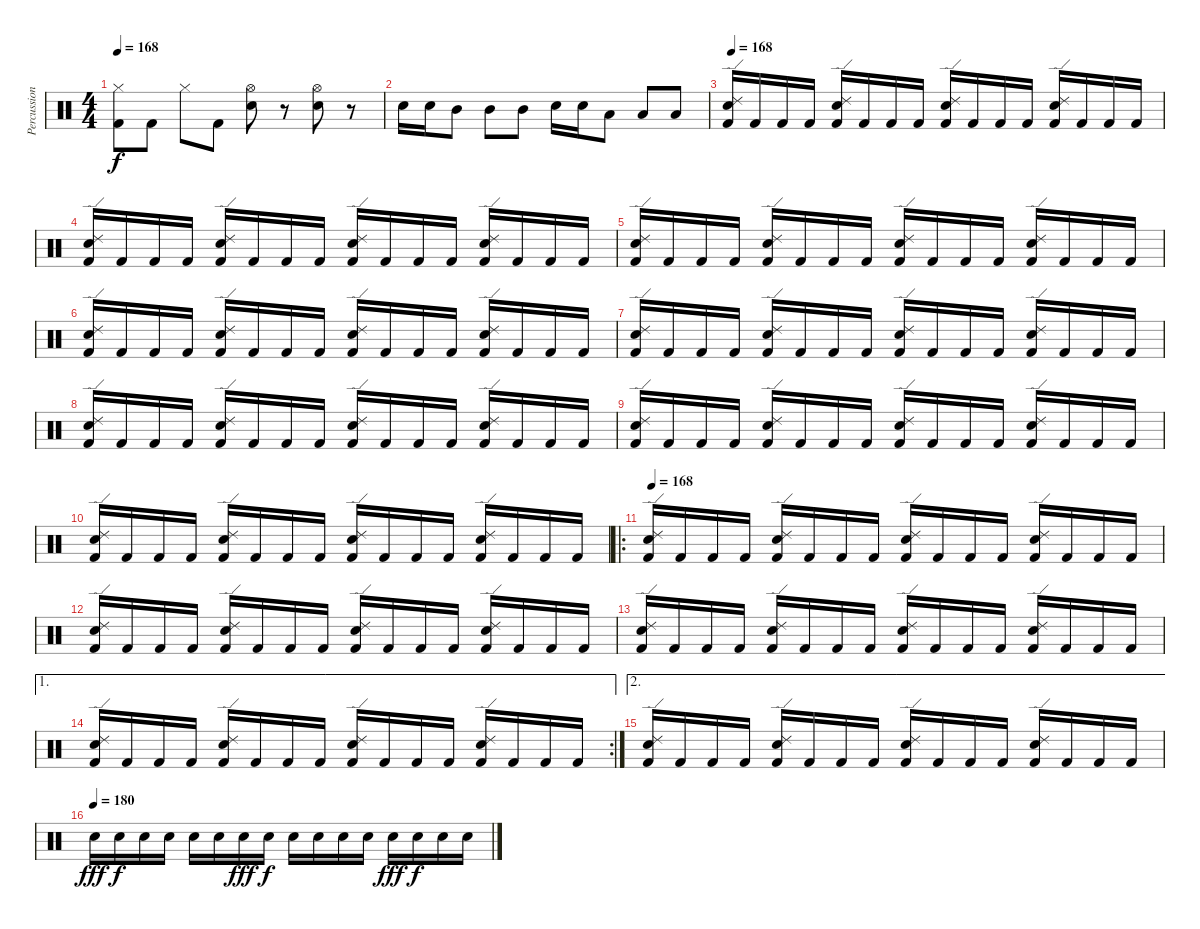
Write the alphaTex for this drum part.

\track ("Percussion" "Percussion") {instrument percussion}
\staff {score}
\articulation defaults
\ts (4 4)
\tempo 168
\clef neutral
\ks c
("Hi-Hat (closed)" "Kick (hit) 2").8{dy f} "Kick (hit) 2".8 "Hi-Hat (closed)".8 "Kick (hit) 2".8 ("Hi-Hat (open)" "Snare (hit) 2").8 r.8 ("Hi-Hat (open)" "Snare (hit) 2").8 r.8 |
"Snare (hit) 2".16 "Snare (hit) 2".16 "Mid Tom (hit)".8 "Mid Tom (hit)".8 "Mid Tom (hit)".8 "Snare (hit) 2".16 "Snare (hit) 2".16 "Low Tom (hit)".8 "Low Tom (hit)".8 "Low Tom (hit)".8 |
\tempo 168
("Ride (edge) 2" "Snare (hit) 2" "Kick (hit) 2").16 "Kick (hit) 2".16 "Kick (hit) 2".16 "Kick (hit) 2".16 ("Ride (edge) 2" "Snare (hit) 2" "Kick (hit) 2").16 "Kick (hit) 2".16 "Kick (hit) 2".16 "Kick (hit) 2".16 ("Ride (edge) 2" "Snare (hit) 2" "Kick (hit) 2").16 "Kick (hit) 2".16 "Kick (hit) 2".16 "Kick (hit) 2".16 ("Ride (edge) 2" "Snare (hit) 2" "Kick (hit) 2").16 "Kick (hit) 2".16 "Kick (hit) 2".16 "Kick (hit) 2".16 |
("Ride (edge) 2" "Snare (hit) 2" "Kick (hit) 2").16 "Kick (hit) 2".16 "Kick (hit) 2".16 "Kick (hit) 2".16 ("Ride (edge) 2" "Snare (hit) 2" "Kick (hit) 2").16 "Kick (hit) 2".16 "Kick (hit) 2".16 "Kick (hit) 2".16 ("Ride (edge) 2" "Snare (hit) 2" "Kick (hit) 2").16 "Kick (hit) 2".16 "Kick (hit) 2".16 "Kick (hit) 2".16 ("Ride (edge) 2" "Snare (hit) 2" "Kick (hit) 2").16 "Kick (hit) 2".16 "Kick (hit) 2".16 "Kick (hit) 2".16 |
("Ride (edge) 2" "Snare (hit) 2" "Kick (hit) 2").16 "Kick (hit) 2".16 "Kick (hit) 2".16 "Kick (hit) 2".16 ("Ride (edge) 2" "Snare (hit) 2" "Kick (hit) 2").16 "Kick (hit) 2".16 "Kick (hit) 2".16 "Kick (hit) 2".16 ("Ride (edge) 2" "Snare (hit) 2" "Kick (hit) 2").16 "Kick (hit) 2".16 "Kick (hit) 2".16 "Kick (hit) 2".16 ("Ride (edge) 2" "Snare (hit) 2" "Kick (hit) 2").16 "Kick (hit) 2".16 "Kick (hit) 2".16 "Kick (hit) 2".16 |
("Ride (edge) 2" "Snare (hit) 2" "Kick (hit) 2").16 "Kick (hit) 2".16 "Kick (hit) 2".16 "Kick (hit) 2".16 ("Ride (edge) 2" "Snare (hit) 2" "Kick (hit) 2").16 "Kick (hit) 2".16 "Kick (hit) 2".16 "Kick (hit) 2".16 ("Ride (edge) 2" "Snare (hit) 2" "Kick (hit) 2").16 "Kick (hit) 2".16 "Kick (hit) 2".16 "Kick (hit) 2".16 ("Ride (edge) 2" "Snare (hit) 2" "Kick (hit) 2").16 "Kick (hit) 2".16 "Kick (hit) 2".16 "Kick (hit) 2".16 |
("Ride (edge) 2" "Snare (hit) 2" "Kick (hit) 2").16 "Kick (hit) 2".16 "Kick (hit) 2".16 "Kick (hit) 2".16 ("Ride (edge) 2" "Snare (hit) 2" "Kick (hit) 2").16 "Kick (hit) 2".16 "Kick (hit) 2".16 "Kick (hit) 2".16 ("Ride (edge) 2" "Snare (hit) 2" "Kick (hit) 2").16 "Kick (hit) 2".16 "Kick (hit) 2".16 "Kick (hit) 2".16 ("Ride (edge) 2" "Snare (hit) 2" "Kick (hit) 2").16 "Kick (hit) 2".16 "Kick (hit) 2".16 "Kick (hit) 2".16 |
("Ride (edge) 2" "Snare (hit) 2" "Kick (hit) 2").16 "Kick (hit) 2".16 "Kick (hit) 2".16 "Kick (hit) 2".16 ("Ride (edge) 2" "Snare (hit) 2" "Kick (hit) 2").16 "Kick (hit) 2".16 "Kick (hit) 2".16 "Kick (hit) 2".16 ("Ride (edge) 2" "Snare (hit) 2" "Kick (hit) 2").16 "Kick (hit) 2".16 "Kick (hit) 2".16 "Kick (hit) 2".16 ("Ride (edge) 2" "Snare (hit) 2" "Kick (hit) 2").16 "Kick (hit) 2".16 "Kick (hit) 2".16 "Kick (hit) 2".16 |
("Ride (edge) 2" "Snare (hit) 2" "Kick (hit) 2").16 "Kick (hit) 2".16 "Kick (hit) 2".16 "Kick (hit) 2".16 ("Ride (edge) 2" "Snare (hit) 2" "Kick (hit) 2").16 "Kick (hit) 2".16 "Kick (hit) 2".16 "Kick (hit) 2".16 ("Ride (edge) 2" "Snare (hit) 2" "Kick (hit) 2").16 "Kick (hit) 2".16 "Kick (hit) 2".16 "Kick (hit) 2".16 ("Ride (edge) 2" "Snare (hit) 2" "Kick (hit) 2").16 "Kick (hit) 2".16 "Kick (hit) 2".16 "Kick (hit) 2".16 |
("Ride (edge) 2" "Snare (hit) 2" "Kick (hit) 2").16 "Kick (hit) 2".16 "Kick (hit) 2".16 "Kick (hit) 2".16 ("Ride (edge) 2" "Snare (hit) 2" "Kick (hit) 2").16 "Kick (hit) 2".16 "Kick (hit) 2".16 "Kick (hit) 2".16 ("Ride (edge) 2" "Snare (hit) 2" "Kick (hit) 2").16 "Kick (hit) 2".16 "Kick (hit) 2".16 "Kick (hit) 2".16 ("Ride (edge) 2" "Snare (hit) 2" "Kick (hit) 2").16 "Kick (hit) 2".16 "Kick (hit) 2".16 "Kick (hit) 2".16 |
\ro
\tempo 168
("Ride (edge) 2" "Snare (hit) 2" "Kick (hit) 2").16 "Kick (hit) 2".16 "Kick (hit) 2".16 "Kick (hit) 2".16 ("Ride (edge) 2" "Snare (hit) 2" "Kick (hit) 2").16 "Kick (hit) 2".16 "Kick (hit) 2".16 "Kick (hit) 2".16 ("Ride (edge) 2" "Snare (hit) 2" "Kick (hit) 2").16 "Kick (hit) 2".16 "Kick (hit) 2".16 "Kick (hit) 2".16 ("Ride (edge) 2" "Snare (hit) 2" "Kick (hit) 2").16 "Kick (hit) 2".16 "Kick (hit) 2".16 "Kick (hit) 2".16 |
("Ride (edge) 2" "Snare (hit) 2" "Kick (hit) 2").16 "Kick (hit) 2".16 "Kick (hit) 2".16 "Kick (hit) 2".16 ("Ride (edge) 2" "Snare (hit) 2" "Kick (hit) 2").16 "Kick (hit) 2".16 "Kick (hit) 2".16 "Kick (hit) 2".16 ("Ride (edge) 2" "Snare (hit) 2" "Kick (hit) 2").16 "Kick (hit) 2".16 "Kick (hit) 2".16 "Kick (hit) 2".16 ("Ride (edge) 2" "Snare (hit) 2" "Kick (hit) 2").16 "Kick (hit) 2".16 "Kick (hit) 2".16 "Kick (hit) 2".16 |
("Ride (edge) 2" "Snare (hit) 2" "Kick (hit) 2").16 "Kick (hit) 2".16 "Kick (hit) 2".16 "Kick (hit) 2".16 ("Ride (edge) 2" "Snare (hit) 2" "Kick (hit) 2").16 "Kick (hit) 2".16 "Kick (hit) 2".16 "Kick (hit) 2".16 ("Ride (edge) 2" "Snare (hit) 2" "Kick (hit) 2").16 "Kick (hit) 2".16 "Kick (hit) 2".16 "Kick (hit) 2".16 ("Ride (edge) 2" "Snare (hit) 2" "Kick (hit) 2").16 "Kick (hit) 2".16 "Kick (hit) 2".16 "Kick (hit) 2".16 |
\ae 1
\rc 2
("Ride (edge) 2" "Snare (hit) 2" "Kick (hit) 2").16 "Kick (hit) 2".16 "Kick (hit) 2".16 "Kick (hit) 2".16 ("Ride (edge) 2" "Snare (hit) 2" "Kick (hit) 2").16 "Kick (hit) 2".16 "Kick (hit) 2".16 "Kick (hit) 2".16 ("Ride (edge) 2" "Snare (hit) 2" "Kick (hit) 2").16 "Kick (hit) 2".16 "Kick (hit) 2".16 "Kick (hit) 2".16 ("Ride (edge) 2" "Snare (hit) 2" "Kick (hit) 2").16 "Kick (hit) 2".16 "Kick (hit) 2".16 "Kick (hit) 2".16 |
\ae 2
("Ride (edge) 2" "Snare (hit) 2" "Kick (hit) 2").16 "Kick (hit) 2".16 "Kick (hit) 2".16 "Kick (hit) 2".16 ("Ride (edge) 2" "Snare (hit) 2" "Kick (hit) 2").16 "Kick (hit) 2".16 "Kick (hit) 2".16 "Kick (hit) 2".16 ("Ride (edge) 2" "Snare (hit) 2" "Kick (hit) 2").16 "Kick (hit) 2".16 "Kick (hit) 2".16 "Kick (hit) 2".16 ("Ride (edge) 2" "Snare (hit) 2" "Kick (hit) 2").16 "Kick (hit) 2".16 "Kick (hit) 2".16 "Kick (hit) 2".16 |
\tempo (180)
"Snare (hit) 2".16{dy fff} "Snare (hit) 2".16{dy f} "Snare (hit) 2".16 "Snare (hit) 2".16 "Snare (hit) 2".16 "Snare (hit) 2".16 "Snare (hit) 2".16{dy fff} "Snare (hit) 2".16{dy f} "Snare (hit) 2".16 "Snare (hit) 2".16 "Snare (hit) 2".16 "Snare (hit) 2".16 "Snare (hit) 2".16{dy fff} "Snare (hit) 2".16{dy f} "Snare (hit) 2".16 "Snare (hit) 2".16
